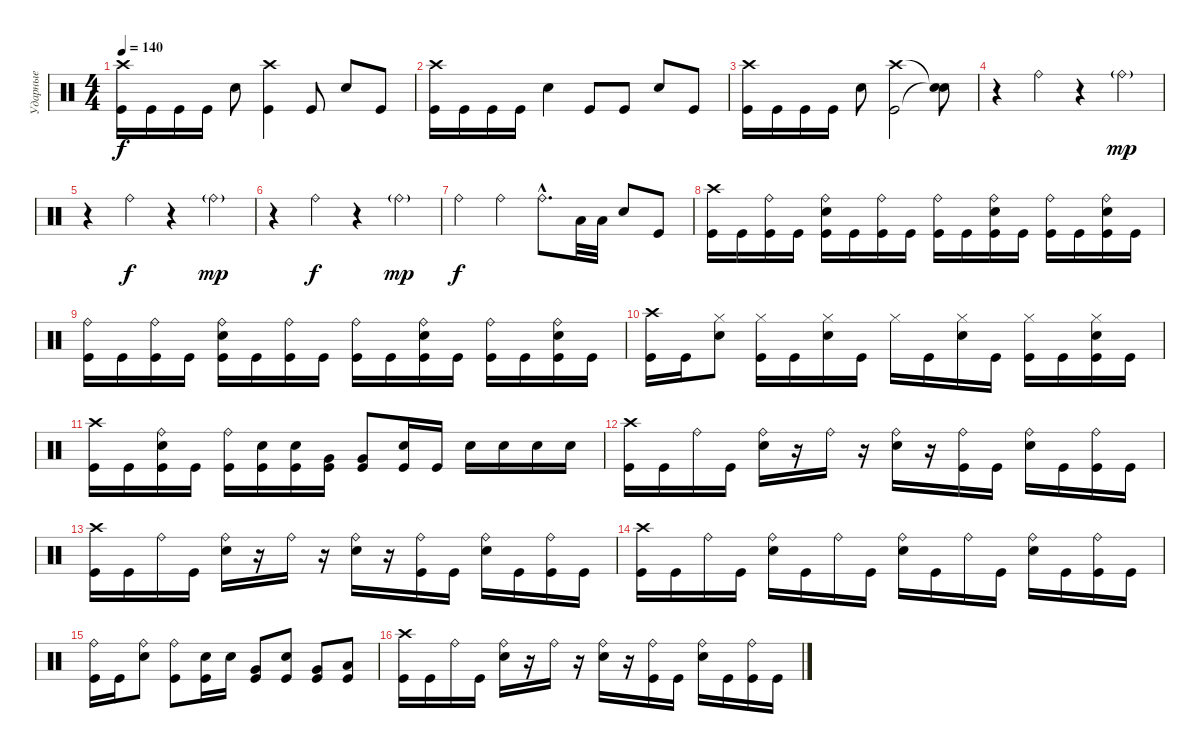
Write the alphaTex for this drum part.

\track ("Ударные" "Ударные") {instrument percussion}
\staff {score}
\articulation defaults
\ts (4 4)
\tempo 140
\clef neutral
\ks c
("Crash high (hit)" "Kick (hit)").16{dy f} "Kick (hit)".16 "Kick (hit)".16 "Kick (hit)".16 "Electric Snare (hit)".8 ("Crash high (hit)" "Kick (hit)").4 "Kick (hit)".8 "Electric Snare (hit)".8 "Kick (hit)".8 |
("Crash high (hit)" "Kick (hit)").16 "Kick (hit)".16 "Kick (hit)".16 "Kick (hit)".16 "Electric Snare (hit)".4 "Kick (hit)".8 "Kick (hit)".8 "Electric Snare (hit)".8 "Kick (hit)".8 |
("Crash high (hit)" "Kick (hit)").16 "Kick (hit)".16 "Kick (hit)".16 "Kick (hit)".16 "Electric Snare (hit)".8 ("Crash high (hit)" "Kick (hit)").2 ("Snare (hit)"{t} "Snare (hit)"{t}).8 |
r.4 "Ride (bell)".4 r.4 "Ride (bell)"{g}.4{dy mp} |
r.4 "Ride (bell)".4{dy f} r.4 "Ride (bell)"{g}.4{dy mp} |
r.4 "Ride (bell)".4{dy f} r.4 "Ride (bell)"{g}.4{dy mp} |
"Ride (bell)".4{dy f} "Ride (bell)".4 "Ride (bell)"{hac}.8{d} "Low Tom (hit)".32 "Low Tom (hit)".32 "Electric Snare (hit)".8 "Kick (hit)".8 |
("Crash high (hit)" "Kick (hit)").16 "Kick (hit)".16 ("Ride (bell)" "Kick (hit)").16 "Kick (hit)".16 ("Ride (bell)" "Electric Snare (hit)" "Kick (hit)").16 "Kick (hit)".16 ("Ride (bell)" "Kick (hit)").16 "Kick (hit)".16 ("Ride (bell)" "Kick (hit)").16 "Kick (hit)".16 ("Ride (bell)" "Electric Snare (hit)" "Kick (hit)").16 "Kick (hit)".16 ("Ride (bell)" "Kick (hit)").16 "Kick (hit)".16 ("Ride (bell)" "Electric Snare (hit)" "Kick (hit)").16 "Kick (hit)".16 |
("Ride (bell)" "Kick (hit)").16 "Kick (hit)".16 ("Ride (bell)" "Kick (hit)").16 "Kick (hit)".16 ("Ride (bell)" "Electric Snare (hit)" "Kick (hit)").16 "Kick (hit)".16 ("Ride (bell)" "Kick (hit)").16 "Kick (hit)".16 ("Ride (bell)" "Kick (hit)").16 "Kick (hit)".16 ("Ride (bell)" "Electric Snare (hit)" "Kick (hit)").16 "Kick (hit)".16 ("Ride (bell)" "Kick (hit)").16 "Kick (hit)".16 ("Ride (bell)" "Electric Snare (hit)" "Kick (hit)").16 "Kick (hit)".16 |
("Crash high (hit)" "Kick (hit)").16 "Kick (hit)".16 ("Hi-Hat (closed)" "Electric Snare (hit)").8 ("Hi-Hat (closed)" "Kick (hit)").16 "Kick (hit)".16 ("Hi-Hat (closed)" "Electric Snare (hit)").16 "Kick (hit)".16 "Hi-Hat (closed)".16 "Kick (hit)".16 ("Hi-Hat (closed)" "Electric Snare (hit)").16 "Kick (hit)".16 ("Hi-Hat (closed)" "Kick (hit)").16 "Kick (hit)".16 ("Hi-Hat (closed)" "Electric Snare (hit)" "Kick (hit)").16 "Kick (hit)".16 |
("Crash high (hit)" "Kick (hit)").16 "Kick (hit)".16 ("Ride (bell)" "Electric Snare (hit)" "Kick (hit)").16 "Kick (hit)".16 ("Ride (bell)" "Kick (hit)").16 ("Electric Snare (hit)" "Kick (hit)").16 ("Electric Snare (hit)" "Kick (hit)").16 ("Very Low Tom (hit)" "Kick (hit)").16 ("Very Low Tom (hit)" "Kick (hit)").8 ("Electric Snare (hit)" "Kick (hit)").16 "Kick (hit)".16 "Electric Snare (hit)".16 "Electric Snare (hit)".16 "Electric Snare (hit)".16 "Electric Snare (hit)".16 |
("Crash high (hit)" "Kick (hit)").16 "Kick (hit)".16 "Ride (bell)".16 "Kick (hit)".16 ("Ride (bell)" "Electric Snare (hit)").16 r.16 "Ride (bell)".16 r.16 ("Ride (bell)" "Electric Snare (hit)").16 r.16 ("Ride (bell)" "Kick (hit)").16 "Kick (hit)".16 ("Ride (bell)" "Electric Snare (hit)").16 "Kick (hit)".16 ("Ride (bell)" "Kick (hit)").16 "Kick (hit)".16 |
("Crash high (hit)" "Kick (hit)").16 "Kick (hit)".16 "Ride (bell)".16 "Kick (hit)".16 ("Ride (bell)" "Electric Snare (hit)").16 r.16 "Ride (bell)".16 r.16 ("Ride (bell)" "Electric Snare (hit)").16 r.16 ("Ride (bell)" "Kick (hit)").16 "Kick (hit)".16 ("Ride (bell)" "Electric Snare (hit)").16 "Kick (hit)".16 ("Ride (bell)" "Kick (hit)").16 "Kick (hit)".16 |
("Crash high (hit)" "Kick (hit)").16 "Kick (hit)".16 "Ride (bell)".16 "Kick (hit)".16 ("Ride (bell)" "Electric Snare (hit)").16 "Kick (hit)".16 "Ride (bell)".16 "Kick (hit)".16 ("Ride (bell)" "Electric Snare (hit)").16 "Kick (hit)".16 "Ride (bell)".16 "Kick (hit)".16 ("Ride (bell)" "Electric Snare (hit)").16 "Kick (hit)".16 ("Ride (bell)" "Kick (hit)").16 "Kick (hit)".16 |
("Ride (bell)" "Kick (hit)").16 "Kick (hit)".16 ("Ride (bell)" "Electric Snare (hit)").8 ("Ride (bell)" "Kick (hit)").8 ("Electric Snare (hit)" "Kick (hit)").16 "Electric Snare (hit)".16 ("Very Low Tom (hit)" "Kick (hit)").8 ("Electric Snare (hit)" "Kick (hit)").8 ("Very Low Tom (hit)" "Kick (hit)").8 ("Low Tom (hit)" "Kick (hit)").8 |
("Crash high (hit)" "Kick (hit)").16 "Kick (hit)".16 "Ride (bell)".16 "Kick (hit)".16 ("Ride (bell)" "Electric Snare (hit)").16 r.16 "Ride (bell)".16 r.16 ("Ride (bell)" "Electric Snare (hit)").16 r.16 ("Ride (bell)" "Kick (hit)").16 "Kick (hit)".16 ("Ride (bell)" "Electric Snare (hit)").16 "Kick (hit)".16 ("Ride (bell)" "Kick (hit)").16 "Kick (hit)".16
